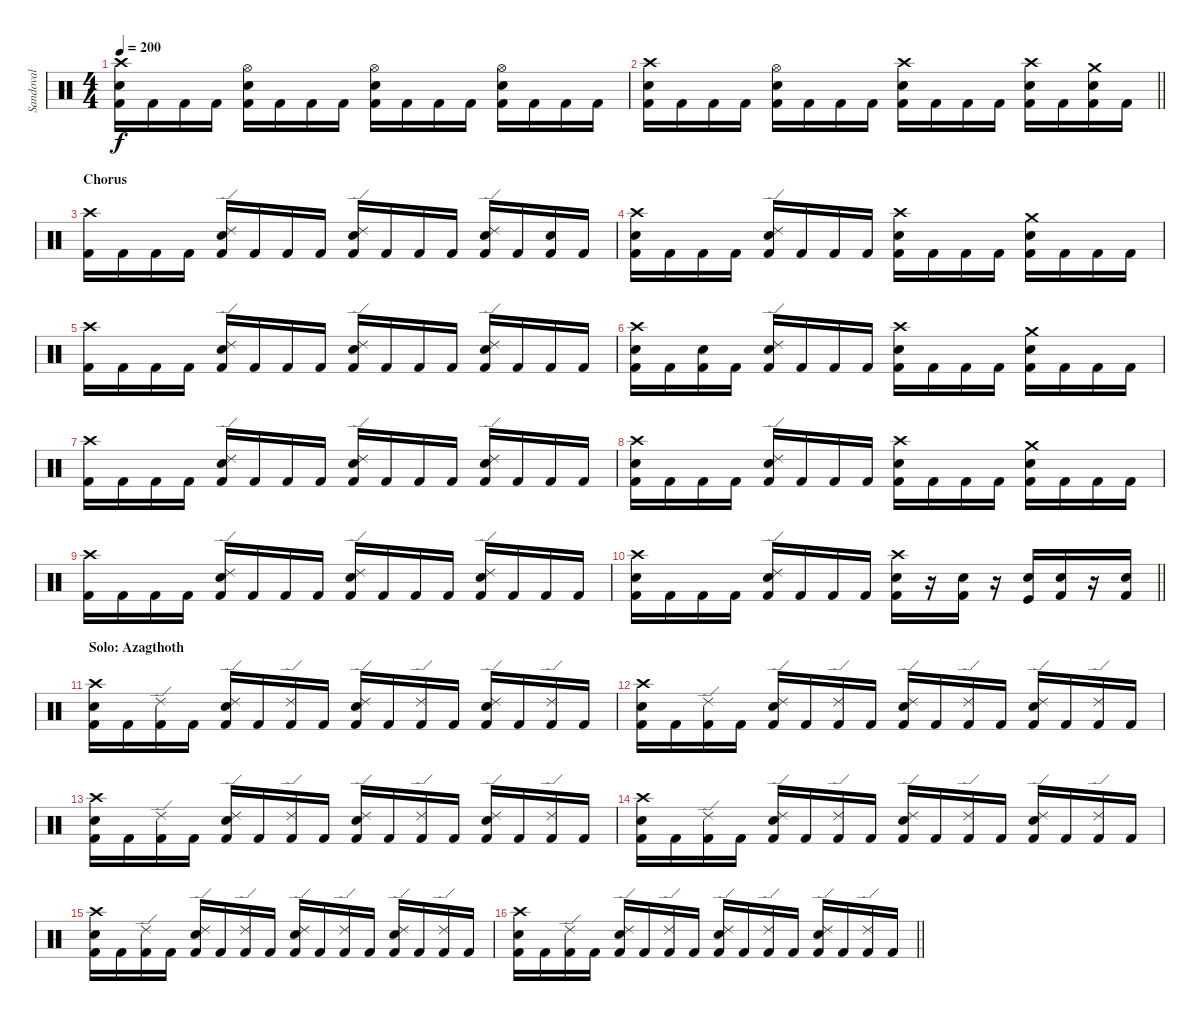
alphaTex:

\track ("Sandoval" "Sandoval") {instrument percussion}
\staff {score}
\articulation defaults
\ts (4 4)
\tempo 200
\clef neutral
\ks c
("Crash high (hit)" "Electric Snare (hit)" "Kick (hit) 2").16{dy f} "Kick (hit) 2".16 "Kick (hit) 2".16 "Kick (hit) 2".16 ("Hi-Hat (open)" "Electric Snare (hit)" "Kick (hit) 2").16 "Kick (hit) 2".16 "Kick (hit) 2".16 "Kick (hit) 2".16 ("Hi-Hat (open)" "Electric Snare (hit)" "Kick (hit) 2").16 "Kick (hit) 2".16 "Kick (hit) 2".16 "Kick (hit) 2".16 ("Hi-Hat (open)" "Electric Snare (hit)" "Kick (hit) 2").16 "Kick (hit) 2".16 "Kick (hit) 2".16 "Kick (hit) 2".16 |
\barLineRight lightlight
("Crash high (hit)" "Electric Snare (hit)" "Kick (hit) 2").16 "Kick (hit) 2".16 "Kick (hit) 2".16 "Kick (hit) 2".16 ("Hi-Hat (open)" "Electric Snare (hit)" "Kick (hit) 2").16 "Kick (hit) 2".16 "Kick (hit) 2".16 "Kick (hit) 2".16 ("Crash high (hit)" "Electric Snare (hit)" "Kick (hit) 2").16 "Kick (hit) 2".16 "Kick (hit) 2".16 "Kick (hit) 2".16 ("Crash high (hit)" "Electric Snare (hit)" "Kick (hit) 2").16 "Kick (hit) 2".16 ("Crash medium (hit)" "Electric Snare (hit)" "Kick (hit) 2").16 "Kick (hit) 2".16 |
\section ("" "Chorus")
("Crash high (hit)" "Kick (hit) 2").16 "Kick (hit) 2".16 "Kick (hit) 2".16 "Kick (hit) 2".16 ("Ride (edge) 2" "Electric Snare (hit)" "Kick (hit) 2").16 "Kick (hit) 2".16 "Kick (hit) 2".16 "Kick (hit) 2".16 ("Ride (edge) 2" "Electric Snare (hit)" "Kick (hit) 2").16 "Kick (hit) 2".16 "Kick (hit) 2".16 "Kick (hit) 2".16 ("Ride (edge) 2" "Electric Snare (hit)" "Kick (hit) 2").16 "Kick (hit) 2".16 ("Electric Snare (hit)" "Kick (hit) 2").16 "Kick (hit) 2".16 |
("Crash high (hit)" "Electric Snare (hit)" "Kick (hit) 2").16 "Kick (hit) 2".16 "Kick (hit) 2".16 "Kick (hit) 2".16 ("Ride (edge) 2" "Electric Snare (hit)" "Kick (hit) 2").16 "Kick (hit) 2".16 "Kick (hit) 2".16 "Kick (hit) 2".16 ("Crash high (hit)" "Electric Snare (hit)" "Kick (hit) 2").16 "Kick (hit) 2".16 "Kick (hit) 2".16 "Kick (hit) 2".16 ("Crash medium (hit)" "Electric Snare (hit)" "Kick (hit) 2").16 "Kick (hit) 2".16 "Kick (hit) 2".16 "Kick (hit) 2".16 |
("Crash high (hit)" "Kick (hit) 2").16 "Kick (hit) 2".16 "Kick (hit) 2".16 "Kick (hit) 2".16 ("Ride (edge) 2" "Electric Snare (hit)" "Kick (hit) 2").16 "Kick (hit) 2".16 "Kick (hit) 2".16 "Kick (hit) 2".16 ("Ride (edge) 2" "Electric Snare (hit)" "Kick (hit) 2").16 "Kick (hit) 2".16 "Kick (hit) 2".16 "Kick (hit) 2".16 ("Ride (edge) 2" "Electric Snare (hit)" "Kick (hit) 2").16 "Kick (hit) 2".16 "Kick (hit) 2".16 "Kick (hit) 2".16 |
("Crash high (hit)" "Electric Snare (hit)" "Kick (hit) 2").16 "Kick (hit) 2".16 ("Electric Snare (hit)" "Kick (hit) 2").16 "Kick (hit) 2".16 ("Ride (edge) 2" "Electric Snare (hit)" "Kick (hit) 2").16 "Kick (hit) 2".16 "Kick (hit) 2".16 "Kick (hit) 2".16 ("Crash high (hit)" "Electric Snare (hit)" "Kick (hit) 2").16 "Kick (hit) 2".16 "Kick (hit) 2".16 "Kick (hit) 2".16 ("Crash medium (hit)" "Electric Snare (hit)" "Kick (hit) 2").16 "Kick (hit) 2".16 "Kick (hit) 2".16 "Kick (hit) 2".16 |
("Crash high (hit)" "Kick (hit) 2").16 "Kick (hit) 2".16 "Kick (hit) 2".16 "Kick (hit) 2".16 ("Ride (edge) 2" "Electric Snare (hit)" "Kick (hit) 2").16 "Kick (hit) 2".16 "Kick (hit) 2".16 "Kick (hit) 2".16 ("Ride (edge) 2" "Electric Snare (hit)" "Kick (hit) 2").16 "Kick (hit) 2".16 "Kick (hit) 2".16 "Kick (hit) 2".16 ("Ride (edge) 2" "Electric Snare (hit)" "Kick (hit) 2").16 "Kick (hit) 2".16 "Kick (hit) 2".16 "Kick (hit) 2".16 |
("Crash high (hit)" "Electric Snare (hit)" "Kick (hit) 2").16 "Kick (hit) 2".16 "Kick (hit) 2".16 "Kick (hit) 2".16 ("Ride (edge) 2" "Electric Snare (hit)" "Kick (hit) 2").16 "Kick (hit) 2".16 "Kick (hit) 2".16 "Kick (hit) 2".16 ("Crash high (hit)" "Electric Snare (hit)" "Kick (hit) 2").16 "Kick (hit) 2".16 "Kick (hit) 2".16 "Kick (hit) 2".16 ("Crash medium (hit)" "Electric Snare (hit)" "Kick (hit) 2").16 "Kick (hit) 2".16 "Kick (hit) 2".16 "Kick (hit) 2".16 |
("Crash high (hit)" "Kick (hit) 2").16 "Kick (hit) 2".16 "Kick (hit) 2".16 "Kick (hit) 2".16 ("Ride (edge) 2" "Electric Snare (hit)" "Kick (hit) 2").16 "Kick (hit) 2".16 "Kick (hit) 2".16 "Kick (hit) 2".16 ("Ride (edge) 2" "Electric Snare (hit)" "Kick (hit) 2").16 "Kick (hit) 2".16 "Kick (hit) 2".16 "Kick (hit) 2".16 ("Ride (edge) 2" "Electric Snare (hit)" "Kick (hit) 2").16 "Kick (hit) 2".16 "Kick (hit) 2".16 "Kick (hit) 2".16 |
\barLineRight lightlight
("Crash high (hit)" "Electric Snare (hit)" "Kick (hit) 2").16 "Kick (hit) 2".16 "Kick (hit) 2".16 "Kick (hit) 2".16 ("Ride (edge) 2" "Electric Snare (hit)" "Kick (hit) 2").16 "Kick (hit) 2".16 "Kick (hit) 2".16 "Kick (hit) 2".16 ("Crash high (hit)" "Electric Snare (hit)" "Kick (hit) 2").16 r.16 ("Electric Snare (hit)" "Kick (hit) 2").16 r.16 ("Electric Snare (hit)" "Kick (hit)").16 ("Electric Snare (hit)" "Kick (hit) 2").16 r.16 ("Electric Snare (hit)" "Kick (hit) 2").16 |
\section ("" "Solo: Azagthoth")
("Crash high (hit)" "Electric Snare (hit)" "Kick (hit) 2").16 "Kick (hit) 2".16 ("Ride (edge) 2" "Kick (hit) 2").16 "Kick (hit) 2".16 ("Ride (edge) 2" "Electric Snare (hit)" "Kick (hit) 2").16 "Kick (hit) 2".16 ("Ride (edge) 2" "Kick (hit) 2").16 "Kick (hit) 2".16 ("Ride (edge) 2" "Electric Snare (hit)" "Kick (hit) 2").16 "Kick (hit) 2".16 ("Ride (edge) 2" "Kick (hit) 2").16 "Kick (hit) 2".16 ("Ride (edge) 2" "Electric Snare (hit)" "Kick (hit) 2").16 "Kick (hit) 2".16 ("Ride (edge) 2" "Kick (hit) 2").16 "Kick (hit) 2".16 |
("Crash high (hit)" "Electric Snare (hit)" "Kick (hit) 2").16 "Kick (hit) 2".16 ("Ride (edge) 2" "Kick (hit) 2").16 "Kick (hit) 2".16 ("Ride (edge) 2" "Electric Snare (hit)" "Kick (hit) 2").16 "Kick (hit) 2".16 ("Ride (edge) 2" "Kick (hit) 2").16 "Kick (hit) 2".16 ("Ride (edge) 2" "Electric Snare (hit)" "Kick (hit) 2").16 "Kick (hit) 2".16 ("Ride (edge) 2" "Kick (hit) 2").16 "Kick (hit) 2".16 ("Ride (edge) 2" "Electric Snare (hit)" "Kick (hit) 2").16 "Kick (hit) 2".16 ("Ride (edge) 2" "Kick (hit) 2").16 "Kick (hit) 2".16 |
("Crash high (hit)" "Electric Snare (hit)" "Kick (hit) 2").16 "Kick (hit) 2".16 ("Ride (edge) 2" "Kick (hit) 2").16 "Kick (hit) 2".16 ("Ride (edge) 2" "Electric Snare (hit)" "Kick (hit) 2").16 "Kick (hit) 2".16 ("Ride (edge) 2" "Kick (hit) 2").16 "Kick (hit) 2".16 ("Ride (edge) 2" "Electric Snare (hit)" "Kick (hit) 2").16 "Kick (hit) 2".16 ("Ride (edge) 2" "Kick (hit) 2").16 "Kick (hit) 2".16 ("Ride (edge) 2" "Electric Snare (hit)" "Kick (hit) 2").16 "Kick (hit) 2".16 ("Ride (edge) 2" "Kick (hit) 2").16 "Kick (hit) 2".16 |
("Crash high (hit)" "Electric Snare (hit)" "Kick (hit) 2").16 "Kick (hit) 2".16 ("Ride (edge) 2" "Kick (hit) 2").16 "Kick (hit) 2".16 ("Ride (edge) 2" "Electric Snare (hit)" "Kick (hit) 2").16 "Kick (hit) 2".16 ("Ride (edge) 2" "Kick (hit) 2").16 "Kick (hit) 2".16 ("Ride (edge) 2" "Electric Snare (hit)" "Kick (hit) 2").16 "Kick (hit) 2".16 ("Ride (edge) 2" "Kick (hit) 2").16 "Kick (hit) 2".16 ("Ride (edge) 2" "Electric Snare (hit)" "Kick (hit) 2").16 "Kick (hit) 2".16 ("Ride (edge) 2" "Kick (hit) 2").16 "Kick (hit) 2".16 |
("Crash high (hit)" "Electric Snare (hit)" "Kick (hit) 2").16 "Kick (hit) 2".16 ("Ride (edge) 2" "Kick (hit) 2").16 "Kick (hit) 2".16 ("Ride (edge) 2" "Electric Snare (hit)" "Kick (hit) 2").16 "Kick (hit) 2".16 ("Ride (edge) 2" "Kick (hit) 2").16 "Kick (hit) 2".16 ("Ride (edge) 2" "Electric Snare (hit)" "Kick (hit) 2").16 "Kick (hit) 2".16 ("Ride (edge) 2" "Kick (hit) 2").16 "Kick (hit) 2".16 ("Ride (edge) 2" "Electric Snare (hit)" "Kick (hit) 2").16 "Kick (hit) 2".16 ("Ride (edge) 2" "Kick (hit) 2").16 "Kick (hit) 2".16 |
\barLineRight lightlight
("Crash high (hit)" "Electric Snare (hit)" "Kick (hit) 2").16 "Kick (hit) 2".16 ("Ride (edge) 2" "Kick (hit) 2").16 "Kick (hit) 2".16 ("Ride (edge) 2" "Electric Snare (hit)" "Kick (hit) 2").16 "Kick (hit) 2".16 ("Ride (edge) 2" "Kick (hit) 2").16 "Kick (hit) 2".16 ("Ride (edge) 2" "Electric Snare (hit)" "Kick (hit) 2").16 "Kick (hit) 2".16 ("Ride (edge) 2" "Kick (hit) 2").16 "Kick (hit) 2".16 ("Ride (edge) 2" "Electric Snare (hit)" "Kick (hit) 2").16 "Kick (hit) 2".16 ("Ride (edge) 2" "Kick (hit) 2").16 "Kick (hit) 2".16
